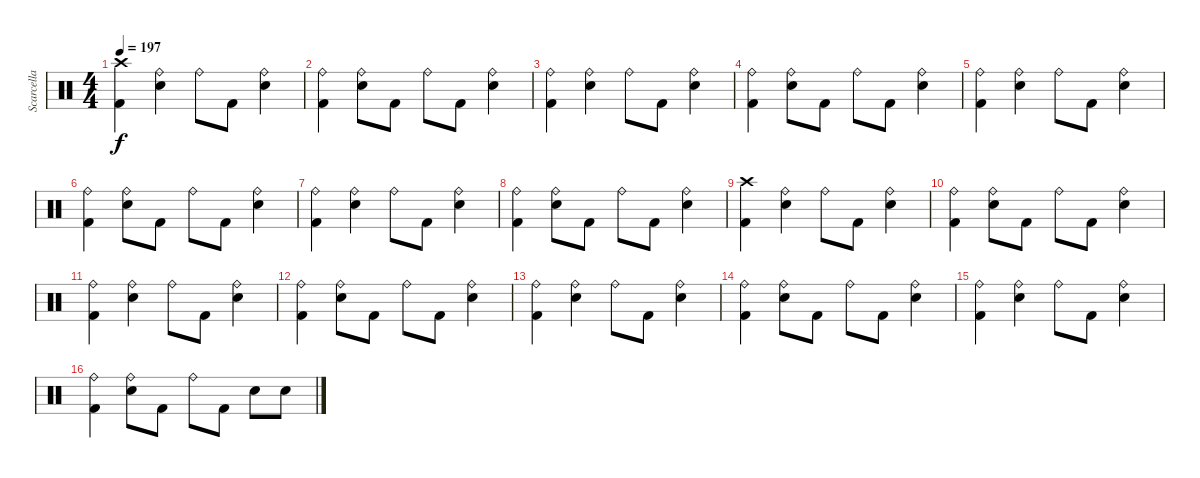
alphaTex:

\track ("Scarcella" "Scarcella") {instrument percussion}
\staff {score}
\articulation defaults
\ts (4 4)
\tempo 197
\clef neutral
\ks c
("Crash high (hit)" "Kick (hit) 2").4{dy f} ("Ride (bell)" "Electric Snare (hit)").4 "Ride (bell)".8 "Kick (hit) 2".8 ("Ride (bell)" "Electric Snare (hit)").4 |
("Ride (bell)" "Kick (hit) 2").4 ("Ride (bell)" "Electric Snare (hit)").8 "Kick (hit) 2".8 "Ride (bell)".8 "Kick (hit) 2".8 ("Ride (bell)" "Electric Snare (hit)").4 |
("Ride (bell)" "Kick (hit) 2").4 ("Ride (bell)" "Electric Snare (hit)").4 "Ride (bell)".8 "Kick (hit) 2".8 ("Ride (bell)" "Electric Snare (hit)").4 |
("Ride (bell)" "Kick (hit) 2").4 ("Ride (bell)" "Electric Snare (hit)").8 "Kick (hit) 2".8 "Ride (bell)".8 "Kick (hit) 2".8 ("Ride (bell)" "Electric Snare (hit)").4 |
("Ride (bell)" "Kick (hit) 2").4 ("Ride (bell)" "Electric Snare (hit)").4 "Ride (bell)".8 "Kick (hit) 2".8 ("Ride (bell)" "Electric Snare (hit)").4 |
("Ride (bell)" "Kick (hit) 2").4 ("Ride (bell)" "Electric Snare (hit)").8 "Kick (hit) 2".8 "Ride (bell)".8 "Kick (hit) 2".8 ("Ride (bell)" "Electric Snare (hit)").4 |
("Ride (bell)" "Kick (hit) 2").4 ("Ride (bell)" "Electric Snare (hit)").4 "Ride (bell)".8 "Kick (hit) 2".8 ("Ride (bell)" "Electric Snare (hit)").4 |
("Ride (bell)" "Kick (hit) 2").4 ("Ride (bell)" "Electric Snare (hit)").8 "Kick (hit) 2".8 "Ride (bell)".8 "Kick (hit) 2".8 ("Ride (bell)" "Electric Snare (hit)").4 |
("Crash high (hit)" "Kick (hit) 2").4 ("Ride (bell)" "Electric Snare (hit)").4 "Ride (bell)".8 "Kick (hit) 2".8 ("Ride (bell)" "Electric Snare (hit)").4 |
("Ride (bell)" "Kick (hit) 2").4 ("Ride (bell)" "Electric Snare (hit)").8 "Kick (hit) 2".8 "Ride (bell)".8 "Kick (hit) 2".8 ("Ride (bell)" "Electric Snare (hit)").4 |
("Ride (bell)" "Kick (hit) 2").4 ("Ride (bell)" "Electric Snare (hit)").4 "Ride (bell)".8 "Kick (hit) 2".8 ("Ride (bell)" "Electric Snare (hit)").4 |
("Ride (bell)" "Kick (hit) 2").4 ("Ride (bell)" "Electric Snare (hit)").8 "Kick (hit) 2".8 "Ride (bell)".8 "Kick (hit) 2".8 ("Ride (bell)" "Electric Snare (hit)").4 |
("Ride (bell)" "Kick (hit) 2").4 ("Ride (bell)" "Electric Snare (hit)").4 "Ride (bell)".8 "Kick (hit) 2".8 ("Ride (bell)" "Electric Snare (hit)").4 |
("Ride (bell)" "Kick (hit) 2").4 ("Ride (bell)" "Electric Snare (hit)").8 "Kick (hit) 2".8 "Ride (bell)".8 "Kick (hit) 2".8 ("Ride (bell)" "Electric Snare (hit)").4 |
("Ride (bell)" "Kick (hit) 2").4 ("Ride (bell)" "Electric Snare (hit)").4 "Ride (bell)".8 "Kick (hit) 2".8 ("Ride (bell)" "Electric Snare (hit)").4 |
("Ride (bell)" "Kick (hit) 2").4 ("Ride (bell)" "Electric Snare (hit)").8 "Kick (hit) 2".8 "Ride (bell)".8 "Kick (hit) 2".8 "Electric Snare (hit)".8 "Electric Snare (hit)".8
